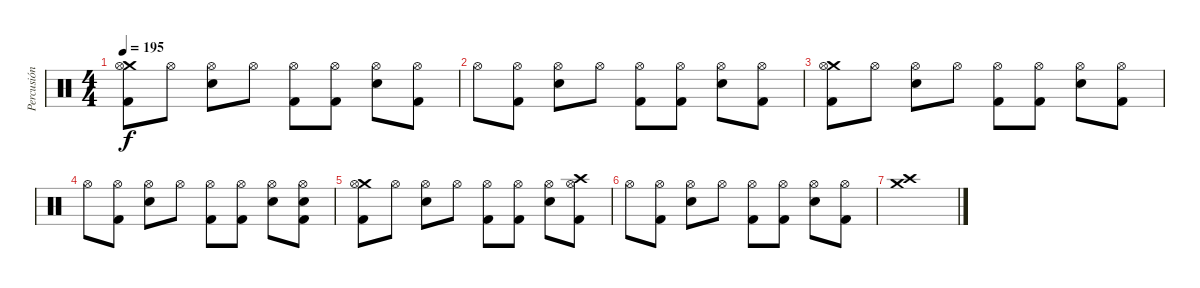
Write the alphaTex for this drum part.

\track ("Percusión" "Percusión") {instrument percussion}
\staff {score}
\articulation defaults
\ts (4 4)
\tempo 195
\clef neutral
\ks c
("Crash medium (hit)" "Hi-Hat (open)" "Kick (hit) 2").8{dy f} "Hi-Hat (open)".8 ("Hi-Hat (open)" "Snare (hit) 2").8 "Hi-Hat (open)".8 ("Hi-Hat (open)" "Kick (hit) 2").8 ("Hi-Hat (open)" "Kick (hit) 2").8 ("Hi-Hat (open)" "Snare (hit) 2").8 ("Hi-Hat (open)" "Kick (hit) 2").8 |
"Hi-Hat (open)".8 ("Hi-Hat (open)" "Kick (hit) 2").8 ("Hi-Hat (open)" "Snare (hit) 2").8 "Hi-Hat (open)".8 ("Hi-Hat (open)" "Kick (hit) 2").8 ("Hi-Hat (open)" "Kick (hit) 2").8 ("Hi-Hat (open)" "Snare (hit) 2").8 ("Hi-Hat (open)" "Kick (hit) 2").8 |
("Crash medium (hit)" "Hi-Hat (open)" "Kick (hit) 2").8 "Hi-Hat (open)".8 ("Hi-Hat (open)" "Snare (hit) 2").8 "Hi-Hat (open)".8 ("Hi-Hat (open)" "Kick (hit) 2").8 ("Hi-Hat (open)" "Kick (hit) 2").8 ("Hi-Hat (open)" "Snare (hit) 2").8 ("Hi-Hat (open)" "Kick (hit) 2").8 |
"Hi-Hat (open)".8 ("Hi-Hat (open)" "Kick (hit) 2").8 ("Hi-Hat (open)" "Snare (hit) 2").8 "Hi-Hat (open)".8 ("Hi-Hat (open)" "Kick (hit) 2").8 ("Hi-Hat (open)" "Kick (hit) 2").8 ("Hi-Hat (open)" "Snare (hit) 2").8 ("Hi-Hat (open)" "Snare (hit) 2" "Kick (hit) 2").8 |
("Crash medium (hit)" "Hi-Hat (open)" "Kick (hit) 2").8 "Hi-Hat (open)".8 ("Hi-Hat (open)" "Snare (hit) 2").8 "Hi-Hat (open)".8 ("Hi-Hat (open)" "Kick (hit) 2").8 ("Hi-Hat (open)" "Kick (hit) 2").8 ("Hi-Hat (open)" "Snare (hit) 2").8 ("Crash high (hit)" "Hi-Hat (open)" "Kick (hit) 2").8 |
"Hi-Hat (open)".8 ("Hi-Hat (open)" "Kick (hit) 2").8 ("Hi-Hat (open)" "Snare (hit) 2").8 "Hi-Hat (open)".8 ("Hi-Hat (open)" "Kick (hit) 2").8 ("Hi-Hat (open)" "Kick (hit) 2").8 ("Hi-Hat (open)" "Snare (hit) 2").8 ("Hi-Hat (open)" "Kick (hit) 2").8 |
("Crash medium (hit)" "Crash high (hit)").1
